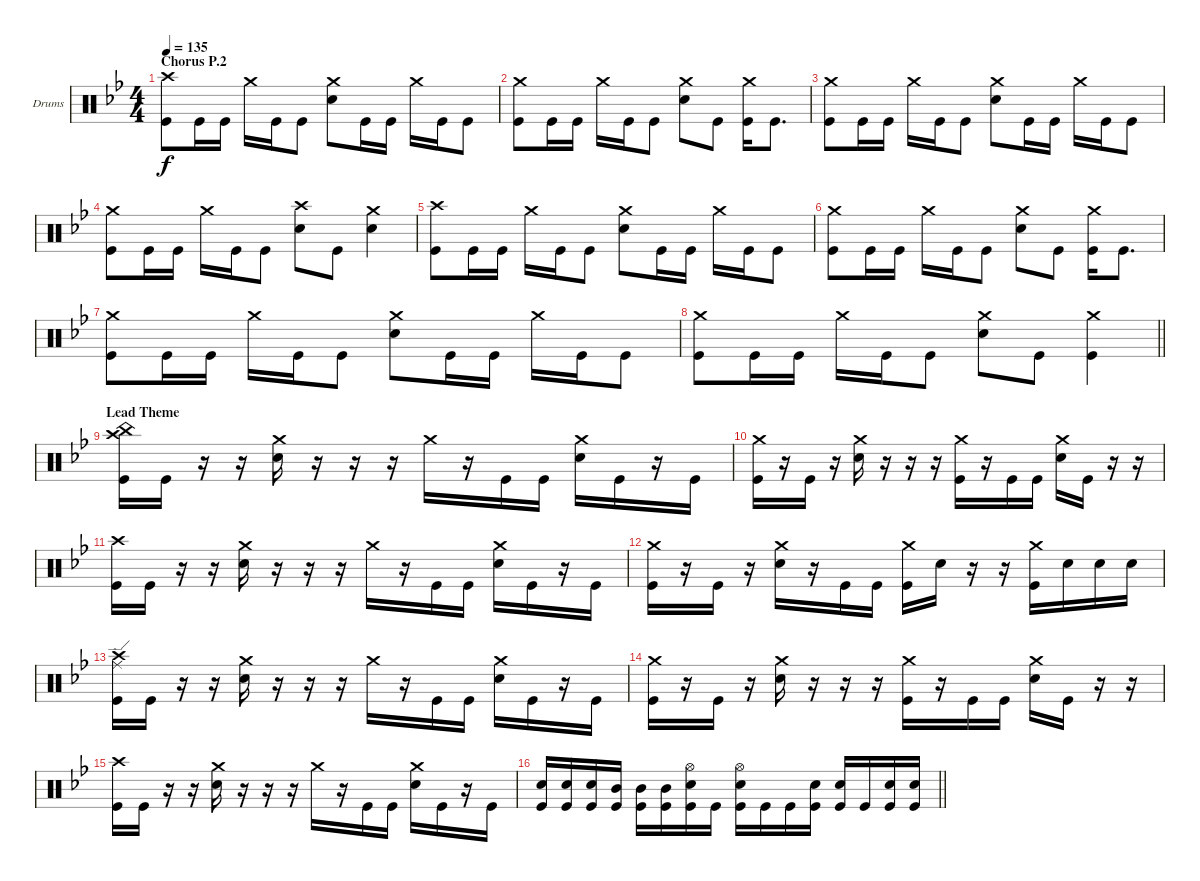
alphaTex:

\bracketExtendMode groupsimilarinstruments
\firstSystemTrackNameOrientation horizontal
\otherSystemsTrackNameOrientation horizontal
\track ("Drumkit" "Drums") {instrument percussion}
\staff {score}
\articulation defaults
\ts (4 4)
\section ("" "Chorus P.2")
\tempo 135
\clef neutral
\ks gminor
("Crash high (hit)" "Kick (hit)").8{dy f} "Kick (hit)".16 "Kick (hit)".16 "Crash medium (hit)".16 "Kick (hit)".16 "Kick (hit)".8 ("Crash medium (hit)" "Snare (hit) 2").8 "Kick (hit)".16 "Kick (hit)".16 "Crash medium (hit)".16 "Kick (hit)".16 "Kick (hit)".8 |
("Crash medium (hit)" "Kick (hit)").8 "Kick (hit)".16 "Kick (hit)".16 "Crash medium (hit)".16 "Kick (hit)".16 "Kick (hit)".8 ("Crash medium (hit)" "Snare (hit) 2").8 "Kick (hit)".8 ("Crash medium (hit)" "Kick (hit)").16 "Kick (hit)".8{d} |
("Crash medium (hit)" "Kick (hit)").8 "Kick (hit)".16 "Kick (hit)".16 "Crash medium (hit)".16 "Kick (hit)".16 "Kick (hit)".8 ("Crash medium (hit)" "Snare (hit) 2").8 "Kick (hit)".16 "Kick (hit)".16 "Crash medium (hit)".16 "Kick (hit)".16 "Kick (hit)".8 |
("Crash medium (hit)" "Kick (hit)").8 "Kick (hit)".16 "Kick (hit)".16 "Crash medium (hit)".16 "Kick (hit)".16 "Kick (hit)".8 ("Crash high (hit)" "Snare (hit) 2").8 "Kick (hit)".8 ("Crash medium (hit)" "Snare (hit) 2").4 |
("Crash high (hit)" "Kick (hit)").8 "Kick (hit)".16 "Kick (hit)".16 "Crash medium (hit)".16 "Kick (hit)".16 "Kick (hit)".8 ("Crash medium (hit)" "Snare (hit) 2").8 "Kick (hit)".16 "Kick (hit)".16 "Crash medium (hit)".16 "Kick (hit)".16 "Kick (hit)".8 |
("Crash medium (hit)" "Kick (hit)").8 "Kick (hit)".16 "Kick (hit)".16 "Crash medium (hit)".16 "Kick (hit)".16 "Kick (hit)".8 ("Crash medium (hit)" "Snare (hit) 2").8 "Kick (hit)".8 ("Crash medium (hit)" "Kick (hit)").16 "Kick (hit)".8{d} |
("Crash medium (hit)" "Kick (hit)").8 "Kick (hit)".16 "Kick (hit)".16 "Crash medium (hit)".16 "Kick (hit)".16 "Kick (hit)".8 ("Crash medium (hit)" "Snare (hit) 2").8 "Kick (hit)".16 "Kick (hit)".16 "Crash medium (hit)".16 "Kick (hit)".16 "Kick (hit)".8 |
\barLineRight lightlight
("Crash medium (hit)" "Kick (hit)").8 "Kick (hit)".16 "Kick (hit)".16 "Crash medium (hit)".16 "Kick (hit)".16 "Kick (hit)".8 ("Crash medium (hit)" "Snare (hit) 2").8 "Kick (hit)".8 ("Crash medium (hit)" "Kick (hit)").4 |
\section ("" "Lead Theme")
("Crash high (hit)" "China (hit)" "Kick (hit)").16 "Kick (hit)".16 r.16 r.16 ("Crash medium (hit)" "Snare (hit) 2").16 r.16 r.16 r.16 "Crash medium (hit)".16 r.16 "Kick (hit)".16 "Kick (hit)".16 ("Crash medium (hit)" "Snare (hit) 2").16 "Kick (hit)".16 r.16 "Kick (hit)".16 |
("Crash medium (hit)" "Kick (hit)").16 r.16 "Kick (hit)".16 r.16 ("Crash medium (hit)" "Snare (hit) 2").16 r.16 r.16 r.16 ("Crash medium (hit)" "Kick (hit)").16 r.16 "Kick (hit)".16 "Kick (hit)".16 ("Crash medium (hit)" "Snare (hit) 2").16 "Kick (hit)".16 r.16 r.16 |
("Crash high (hit)" "Kick (hit)").16 "Kick (hit)".16 r.16 r.16 ("Crash medium (hit)" "Snare (hit) 2").16 r.16 r.16 r.16 "Crash medium (hit)".16 r.16 "Kick (hit)".16 "Kick (hit)".16 ("Crash medium (hit)" "Snare (hit) 2").16 "Kick (hit)".16 r.16 "Kick (hit)".16 |
("Crash medium (hit)" "Kick (hit)").16 r.16 "Kick (hit)".16 r.16 ("Crash medium (hit)" "Snare (hit) 2").16 r.16 "Kick (hit)".16 "Kick (hit)".16 ("Crash medium (hit)" "Kick (hit)").16 "Snare (hit) 2".16 r.16 r.16 ("Crash medium (hit)" "Kick (hit)").16 "Snare (hit) 2".16 "Snare (hit) 2".16 "Snare (hit) 2".16 |
("Crash high (hit)" "Ride (edge)" "Kick (hit)").16 "Kick (hit)".16 r.16 r.16 ("Crash medium (hit)" "Snare (hit) 2").16 r.16 r.16 r.16 "Crash medium (hit)".16 r.16 "Kick (hit)".16 "Kick (hit)".16 ("Crash medium (hit)" "Snare (hit) 2").16 "Kick (hit)".16 r.16 "Kick (hit)".16 |
("Crash medium (hit)" "Kick (hit)").16 r.16 "Kick (hit)".16 r.16 ("Crash medium (hit)" "Snare (hit) 2").16 r.16 r.16 r.16 ("Crash medium (hit)" "Kick (hit)").16 r.16 "Kick (hit)".16 "Kick (hit)".16 ("Crash medium (hit)" "Snare (hit) 2").16 "Kick (hit)".16 r.16 r.16 |
("Crash high (hit)" "Kick (hit)").16 "Kick (hit)".16 r.16 r.16 ("Crash medium (hit)" "Snare (hit) 2").16 r.16 r.16 r.16 "Crash medium (hit)".16 r.16 "Kick (hit)".16 "Kick (hit)".16 ("Crash medium (hit)" "Snare (hit) 2").16 "Kick (hit)".16 r.16 "Kick (hit)".16 |
\barLineRight lightlight
("Snare (hit) 2" "Kick (hit)").16 ("Snare (hit) 2" "Kick (hit)").16 ("Snare (hit) 2" "Kick (hit)").16 ("Mid Tom (hit)" "Kick (hit)").16 ("Mid Tom (hit)" "Kick (hit)").16 ("Mid Tom (hit)" "Kick (hit)").16 ("Hi-Hat (open)" "Snare (hit) 2" "Kick (hit)").16 "Kick (hit)".16 ("Hi-Hat (open)" "Snare (hit) 2" "Kick (hit)").16 "Kick (hit)".16 "Kick (hit)".16 ("Snare (hit) 2" "Kick (hit)").16 ("Snare (hit) 2" "Kick (hit)").16 "Kick (hit)".16 ("Snare (hit) 2" "Kick (hit)").16 ("Snare (hit) 2" "Kick (hit)").16
